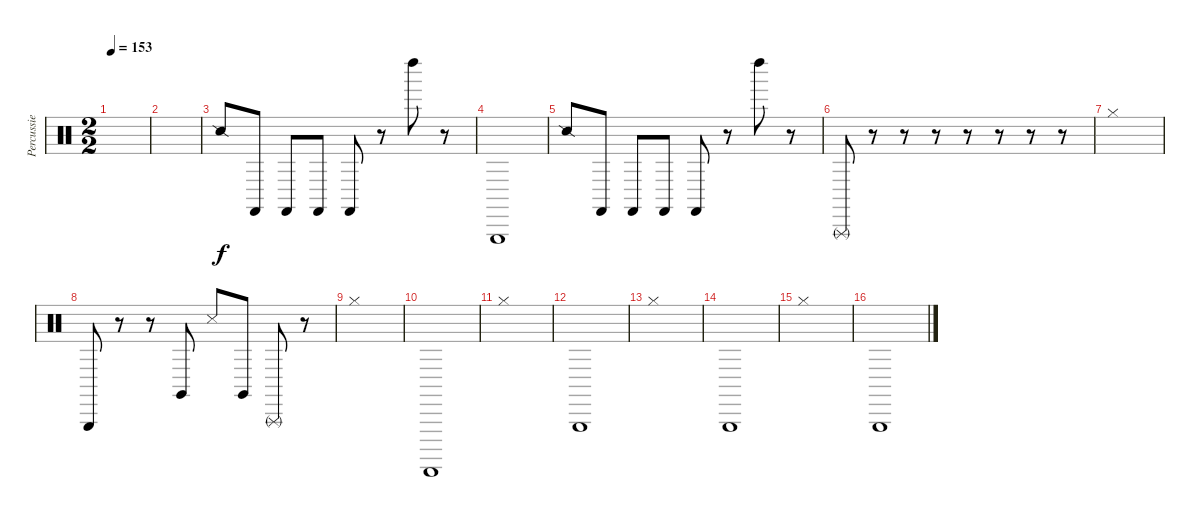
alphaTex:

\track ("Percussie" "Percussie") {instrument percussion}
\staff {score}
\articulation defaults
\ts (2 2)
\tempo 153
\clef neutral
\ks c
|
|
"Snare (side stick) 2".8 "Castanets (hit)".8 "Castanets (hit)".8 "Castanets (hit)".8 "Castanets (hit)".8 r.8 "Left Maraca (hit)".8 r.8 |
"Triangle (hit)".1 |
"Snare (side stick) 2".8 "Castanets (hit)".8 "Castanets (hit)".8 "Castanets (hit)".8 "Castanets (hit)".8 r.8 "Left Maraca (hit)".8 r.8 |
"Triangle (rnute)".8 r.8 r.8 r.8 r.8 r.8 r.8 r.8 |
"Hi-Hat (closed)".1 |
"Triangle (hit)".8 r.8 r.8 "Claves (hit)".8 "Metronome (hit)".8 "Claves (hit)".8 "Triangle (rnute)".8 r.8 |
"Hi-Hat (closed)".1 |
"Guiro (scrap-return)".1 |
"Hi-Hat (closed)".1 |
"Triangle (hit)".1 |
"Hi-Hat (closed)".1 |
"Triangle (hit)".1 |
"Hi-Hat (closed)".1 |
"Triangle (hit)".1
